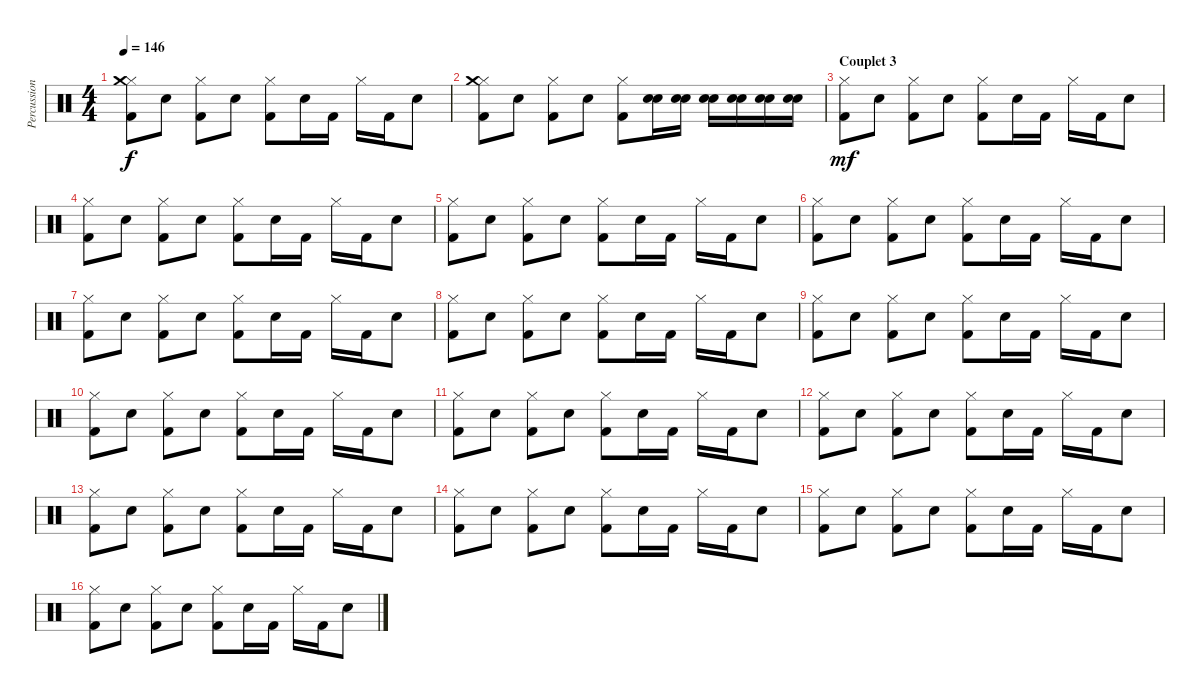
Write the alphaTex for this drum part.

\track ("Percussions" "Percussion") {instrument percussion}
\staff {score}
\articulation defaults
\ts (4 4)
\tempo 146
\clef neutral
\ks c
("Hi-Hat (closed)" "Crash medium (hit)" "Kick (hit) 2").8{dy f} "Electric Snare (hit)".8 ("Hi-Hat (closed)" "Kick (hit) 2").8 "Electric Snare (hit)".8 ("Hi-Hat (closed)" "Kick (hit) 2").8 "Electric Snare (hit)".16 "Kick (hit) 2".16 "Hi-Hat (closed)".16 "Kick (hit) 2".16 "Electric Snare (hit)".8 |
("Hi-Hat (closed)" "Crash medium (hit)" "Kick (hit) 2").8 "Electric Snare (hit)".8 ("Hi-Hat (closed)" "Kick (hit) 2").8 "Electric Snare (hit)".8 ("Hi-Hat (closed)" "Kick (hit) 2").8 ("Electric Snare (hit)" "Snare (hit) 2").16 ("Electric Snare (hit)" "Snare (hit) 2").16 ("Electric Snare (hit)" "Snare (hit) 2").16 ("Electric Snare (hit)" "Snare (hit) 2").16 ("Electric Snare (hit)" "Snare (hit) 2").16 ("Electric Snare (hit)" "Snare (hit) 2").16 |
\section ("" "Couplet 3")
("Hi-Hat (closed)" "Kick (hit) 2").8{dy mf} "Electric Snare (hit)".8 ("Hi-Hat (closed)" "Kick (hit) 2").8 "Electric Snare (hit)".8 ("Hi-Hat (closed)" "Kick (hit) 2").8 "Electric Snare (hit)".16 "Kick (hit) 2".16 "Hi-Hat (closed)".16 "Kick (hit) 2".16 "Electric Snare (hit)".8 |
("Hi-Hat (closed)" "Kick (hit) 2").8 "Electric Snare (hit)".8 ("Hi-Hat (closed)" "Kick (hit) 2").8 "Electric Snare (hit)".8 ("Hi-Hat (closed)" "Kick (hit) 2").8 "Electric Snare (hit)".16 "Kick (hit) 2".16 "Hi-Hat (closed)".16 "Kick (hit) 2".16 "Electric Snare (hit)".8 |
("Hi-Hat (closed)" "Kick (hit) 2").8 "Electric Snare (hit)".8 ("Hi-Hat (closed)" "Kick (hit) 2").8 "Electric Snare (hit)".8 ("Hi-Hat (closed)" "Kick (hit) 2").8 "Electric Snare (hit)".16 "Kick (hit) 2".16 "Hi-Hat (closed)".16 "Kick (hit) 2".16 "Electric Snare (hit)".8 |
("Hi-Hat (closed)" "Kick (hit) 2").8 "Electric Snare (hit)".8 ("Hi-Hat (closed)" "Kick (hit) 2").8 "Electric Snare (hit)".8 ("Hi-Hat (closed)" "Kick (hit) 2").8 "Electric Snare (hit)".16 "Kick (hit) 2".16 "Hi-Hat (closed)".16 "Kick (hit) 2".16 "Electric Snare (hit)".8 |
("Hi-Hat (closed)" "Kick (hit) 2").8 "Electric Snare (hit)".8 ("Hi-Hat (closed)" "Kick (hit) 2").8 "Electric Snare (hit)".8 ("Hi-Hat (closed)" "Kick (hit) 2").8 "Electric Snare (hit)".16 "Kick (hit) 2".16 "Hi-Hat (closed)".16 "Kick (hit) 2".16 "Electric Snare (hit)".8 |
("Hi-Hat (closed)" "Kick (hit) 2").8 "Electric Snare (hit)".8 ("Hi-Hat (closed)" "Kick (hit) 2").8 "Electric Snare (hit)".8 ("Hi-Hat (closed)" "Kick (hit) 2").8 "Electric Snare (hit)".16 "Kick (hit) 2".16 "Hi-Hat (closed)".16 "Kick (hit) 2".16 "Electric Snare (hit)".8 |
("Hi-Hat (closed)" "Kick (hit) 2").8 "Electric Snare (hit)".8 ("Hi-Hat (closed)" "Kick (hit) 2").8 "Electric Snare (hit)".8 ("Hi-Hat (closed)" "Kick (hit) 2").8 "Electric Snare (hit)".16 "Kick (hit) 2".16 "Hi-Hat (closed)".16 "Kick (hit) 2".16 "Electric Snare (hit)".8 |
("Hi-Hat (closed)" "Kick (hit) 2").8 "Electric Snare (hit)".8 ("Hi-Hat (closed)" "Kick (hit) 2").8 "Electric Snare (hit)".8 ("Hi-Hat (closed)" "Kick (hit) 2").8 "Electric Snare (hit)".16 "Kick (hit) 2".16 "Hi-Hat (closed)".16 "Kick (hit) 2".16 "Electric Snare (hit)".8 |
("Hi-Hat (closed)" "Kick (hit) 2").8 "Electric Snare (hit)".8 ("Hi-Hat (closed)" "Kick (hit) 2").8 "Electric Snare (hit)".8 ("Hi-Hat (closed)" "Kick (hit) 2").8 "Electric Snare (hit)".16 "Kick (hit) 2".16 "Hi-Hat (closed)".16 "Kick (hit) 2".16 "Electric Snare (hit)".8 |
("Hi-Hat (closed)" "Kick (hit) 2").8 "Electric Snare (hit)".8 ("Hi-Hat (closed)" "Kick (hit) 2").8 "Electric Snare (hit)".8 ("Hi-Hat (closed)" "Kick (hit) 2").8 "Electric Snare (hit)".16 "Kick (hit) 2".16 "Hi-Hat (closed)".16 "Kick (hit) 2".16 "Electric Snare (hit)".8 |
("Hi-Hat (closed)" "Kick (hit) 2").8 "Electric Snare (hit)".8 ("Hi-Hat (closed)" "Kick (hit) 2").8 "Electric Snare (hit)".8 ("Hi-Hat (closed)" "Kick (hit) 2").8 "Electric Snare (hit)".16 "Kick (hit) 2".16 "Hi-Hat (closed)".16 "Kick (hit) 2".16 "Electric Snare (hit)".8 |
("Hi-Hat (closed)" "Kick (hit) 2").8 "Electric Snare (hit)".8 ("Hi-Hat (closed)" "Kick (hit) 2").8 "Electric Snare (hit)".8 ("Hi-Hat (closed)" "Kick (hit) 2").8 "Electric Snare (hit)".16 "Kick (hit) 2".16 "Hi-Hat (closed)".16 "Kick (hit) 2".16 "Electric Snare (hit)".8 |
("Hi-Hat (closed)" "Kick (hit) 2").8 "Electric Snare (hit)".8 ("Hi-Hat (closed)" "Kick (hit) 2").8 "Electric Snare (hit)".8 ("Hi-Hat (closed)" "Kick (hit) 2").8 "Electric Snare (hit)".16 "Kick (hit) 2".16 "Hi-Hat (closed)".16 "Kick (hit) 2".16 "Electric Snare (hit)".8 |
("Hi-Hat (closed)" "Kick (hit) 2").8 "Electric Snare (hit)".8 ("Hi-Hat (closed)" "Kick (hit) 2").8 "Electric Snare (hit)".8 ("Hi-Hat (closed)" "Kick (hit) 2").8 "Electric Snare (hit)".16 "Kick (hit) 2".16 "Hi-Hat (closed)".16 "Kick (hit) 2".16 "Electric Snare (hit)".8
